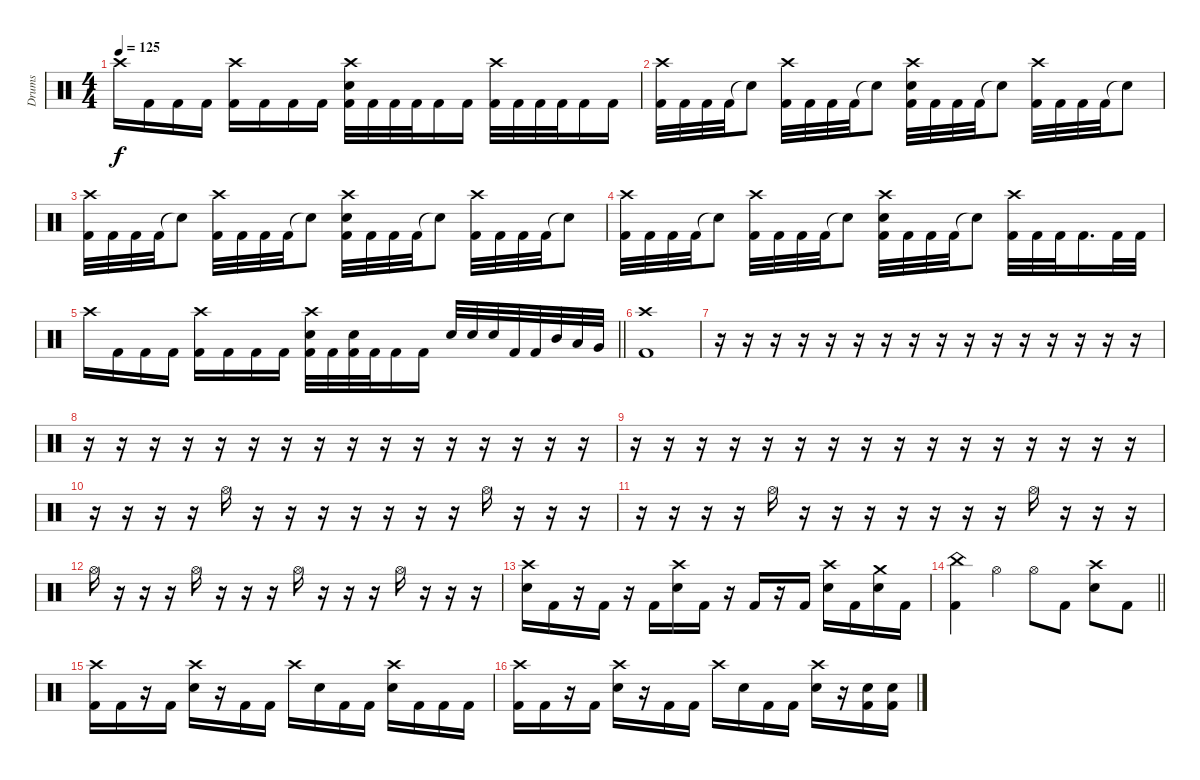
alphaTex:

\track ("Drums" "Drums") {instrument percussion}
\staff
\articulation defaults
\ts (4 4)
\tempo 125
\clef neutral
\ks c "Crash high (hit)".16{dy f} "Kick (hit) 2".16 "Kick (hit) 2".16 "Kick (hit) 2".16
("Crash high (hit)" "Kick (hit) 2").16 "Kick (hit) 2".16 "Kick (hit) 2".16 "Kick (hit) 2".16 ("Crash high (hit)" "Electric Snare (hit)" "Kick (hit) 2").32 "Kick (hit) 2".32 "Kick (hit) 2".32 "Kick (hit) 2".32 "Kick (hit) 2".16 "Kick (hit) 2".16 ("Crash high (hit)" "Kick (hit) 2").32 "Kick (hit) 2".32 "Kick (hit) 2".32 "Kick (hit) 2".32 "Kick (hit) 2".16 "Kick (hit) 2".16 |
("Crash high (hit)" "Kick (hit) 2").32 "Kick (hit) 2".32 "Kick (hit) 2".32 "Kick (hit) 2".32 "Snare (hit)"{t}.8 ("Crash high (hit)" "Kick (hit) 2").32 "Kick (hit) 2".32 "Kick (hit) 2".32 "Kick (hit) 2".32 "Snare (hit)"{t}.8 ("Crash high (hit)" "Electric Snare (hit)" "Kick (hit) 2").32 "Kick (hit) 2".32 "Kick (hit) 2".32 "Kick (hit) 2".32 "Snare (hit)"{t}.8 ("Crash high (hit)" "Kick (hit) 2").32 "Kick (hit) 2".32 "Kick (hit) 2".32 "Kick (hit) 2".32 "Snare (hit)"{t}.8 |
("Crash high (hit)" "Kick (hit) 2").32 "Kick (hit) 2".32 "Kick (hit) 2".32 "Kick (hit) 2".32 "Snare (hit)"{t}.8 ("Crash high (hit)" "Kick (hit) 2").32 "Kick (hit) 2".32 "Kick (hit) 2".32 "Kick (hit) 2".32 "Snare (hit)"{t}.8 ("Crash high (hit)" "Electric Snare (hit)" "Kick (hit) 2").32 "Kick (hit) 2".32 "Kick (hit) 2".32 "Kick (hit) 2".32 "Snare (hit)"{t}.8 ("Crash high (hit)" "Kick (hit) 2").32 "Kick (hit) 2".32 "Kick (hit) 2".32 "Kick (hit) 2".32 "Snare (hit)"{t}.8 |
("Crash high (hit)" "Kick (hit) 2").32 "Kick (hit) 2".32 "Kick (hit) 2".32 "Kick (hit) 2".32 "Snare (hit)"{t}.8 ("Crash high (hit)" "Kick (hit) 2").32 "Kick (hit) 2".32 "Kick (hit) 2".32 "Kick (hit) 2".32 "Snare (hit)"{t}.8 ("Crash high (hit)" "Electric Snare (hit)" "Kick (hit) 2").32 "Kick (hit) 2".32 "Kick (hit) 2".32 "Kick (hit) 2".32 "Snare (hit)"{t}.8 ("Crash high (hit)" "Kick (hit) 2").32 "Kick (hit) 2".32 "Kick (hit) 2".32 "Kick (hit) 2".16{d} "Kick (hit) 2".32 "Kick (hit) 2".32 |
\barLineRight lightlight "Crash high (hit)".16 "Kick (hit) 2".16 "Kick (hit) 2".16 "Kick (hit) 2".16
("Crash high (hit)" "Kick (hit) 2").16 "Kick (hit) 2".16 "Kick (hit) 2".16 "Kick (hit) 2".16 ("Crash high (hit)" "Electric Snare (hit)" "Kick (hit) 2").32 "Kick (hit) 2".32 ("Electric Snare (hit)" "Kick (hit) 2").32 "Kick (hit) 2".32 "Kick (hit) 2".16 "Kick (hit) 2".16 "Electric Snare (hit)".32 "Electric Snare (hit)".32 "Electric Snare (hit)".32 "Kick (hit) 2".32 "Kick (hit) 2".32 "Mid Tom (hit)".32 "Low Tom (hit)".32 "Very Low Tom (hit)".32 |
\section ("" "")
("Crash high (hit)" "Kick (hit) 2").1 |
r.16 r.16 r.16 r.16 r.16 r.16 r.16 r.16 r.16 r.16 r.16 r.16 r.16 r.16 r.16 r.16 |
r.16 r.16 r.16 r.16 r.16 r.16 r.16 r.16 r.16 r.16 r.16 r.16 r.16 r.16 r.16 r.16 |
r.16 r.16 r.16 r.16 r.16 r.16 r.16 r.16 r.16 r.16 r.16 r.16 r.16 r.16 r.16 r.16 |
r.16 r.16 r.16 r.16 "Hi-Hat (open)".16 r.16 r.16 r.16 r.16 r.16 r.16 r.16 "Hi-Hat (open)".16 r.16 r.16 r.16 |
r.16 r.16 r.16 r.16 "Hi-Hat (open)".16 r.16 r.16 r.16 r.16 r.16 r.16 r.16 "Hi-Hat (open)".16 r.16 r.16 r.16 |
"Hi-Hat (open)".16 r.16 r.16 r.16 "Hi-Hat (open)".16 r.16 r.16 r.16 "Hi-Hat (open)".16 r.16 r.16 r.16 "Hi-Hat (open)".16 r.16 r.16 r.16 |
("Crash high (hit)" "Electric Snare (hit)").16 "Kick (hit) 2".16 r.16 "Kick (hit) 2".16 r.16 "Kick (hit) 2".16 ("Crash high (hit)" "Electric Snare (hit)").16 "Kick (hit) 2".16 r.16 "Kick (hit) 2".16 r.16 "Kick (hit) 2".16 ("Crash high (hit)" "Electric Snare (hit)").16 "Kick (hit) 2".16 ("Crash medium (hit)" "Electric Snare (hit)").16 "Kick (hit) 2".16 |
\barLineRight lightlight
("China (hit)" "Kick (hit) 2").4 "Hi-Hat (open)".4 "Hi-Hat (open)".8 "Kick (hit) 2".8 ("Crash high (hit)" "Electric Snare (hit)").8 "Kick (hit) 2".8 |
("Crash high (hit)" "Kick (hit) 2").16 "Kick (hit) 2".16 r.16 "Kick (hit) 2".16 ("Crash high (hit)" "Electric Snare (hit)").16 r.16 "Kick (hit) 2".16 "Kick (hit) 2".16 "Crash high (hit)".16 "Electric Snare (hit)".16 "Kick (hit) 2".16 "Kick (hit) 2".16 ("Crash high (hit)" "Electric Snare (hit)").16 "Kick (hit) 2".16 "Kick (hit) 2".16 "Kick (hit) 2".16 |
("Crash high (hit)" "Kick (hit) 2").16 "Kick (hit) 2".16 r.16 "Kick (hit) 2".16 ("Crash high (hit)" "Electric Snare (hit)").16 r.16 "Kick (hit) 2".16 "Kick (hit) 2".16 "Crash high (hit)".16 "Electric Snare (hit)".16 "Kick (hit) 2".16 "Kick (hit) 2".16 ("Crash high (hit)" "Electric Snare (hit)").16 r.16 ("Electric Snare (hit)" "Kick (hit) 2").16 ("Electric Snare (hit)" "Kick (hit) 2").16
